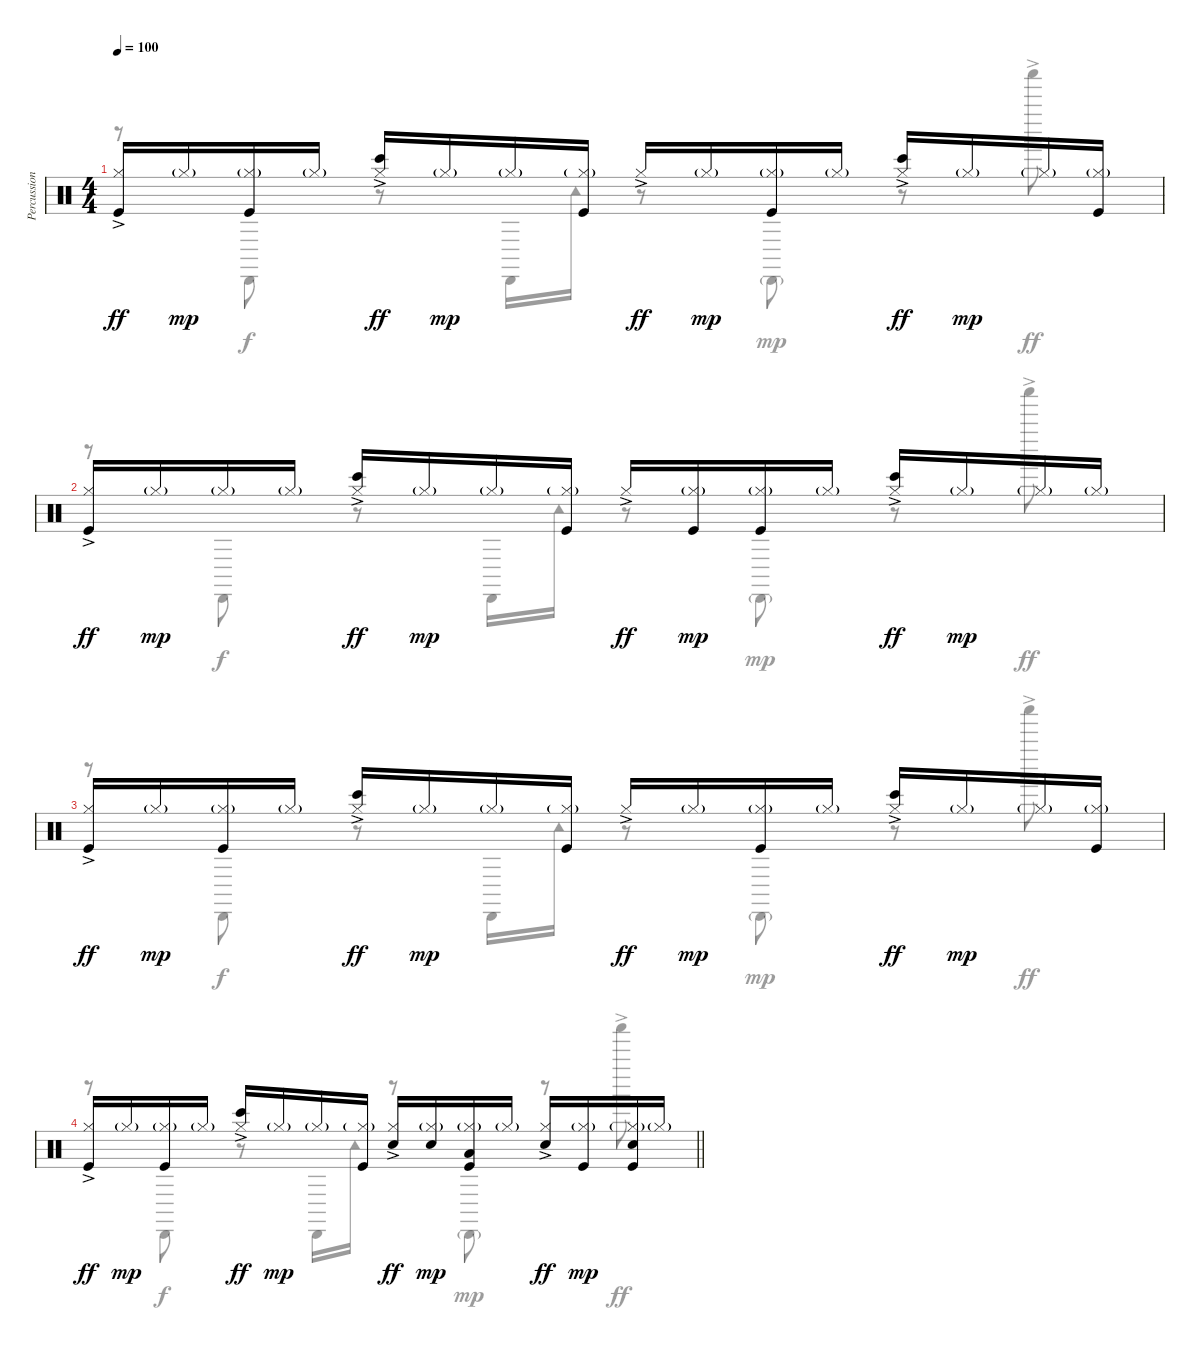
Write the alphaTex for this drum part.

\track ("Percussions" "Percussion") {instrument percussion}
\staff {score}
\articulation defaults
\voice
\ts (4 4)
\tempo 100
\clef neutral
\ks c
("Kick (hit)" "Hi-Hat (closed)"{ac}).16{dy ff} "Hi-Hat (closed)"{g}.16{dy mp} ("Kick (hit)" "Hi-Hat (closed)"{g}).16 "Hi-Hat (closed)"{g}.16 ("Bongo High (hit)" "Hi-Hat (closed)"{ac}).16{dy ff} "Hi-Hat (closed)"{g}.16{dy mp} "Hi-Hat (closed)"{g}.16 ("Kick (hit)" "Hi-Hat (closed)"{g}).16 "Hi-Hat (closed)"{ac}.16{dy ff} "Hi-Hat (closed)"{g}.16{dy mp} ("Kick (hit)" "Hi-Hat (closed)"{g}).16 "Hi-Hat (closed)"{g}.16 ("Bongo High (hit)" "Hi-Hat (closed)"{ac}).16{dy ff} "Hi-Hat (closed)"{g}.16{dy mp} "Hi-Hat (closed)"{g}.16 ("Kick (hit)" "Hi-Hat (closed)"{g}).16 |
("Kick (hit)" "Hi-Hat (closed)"{ac}).16{dy ff} "Hi-Hat (closed)"{g}.16{dy mp} "Hi-Hat (closed)"{g}.16 "Hi-Hat (closed)"{g}.16 ("Bongo High (hit)" "Hi-Hat (closed)"{ac}).16{dy ff} "Hi-Hat (closed)"{g}.16{dy mp} "Hi-Hat (closed)"{g}.16 ("Kick (hit)" "Hi-Hat (closed)"{g}).16 "Hi-Hat (closed)"{ac}.16{dy ff} ("Kick (hit)" "Hi-Hat (closed)"{g}).16{dy mp} ("Kick (hit)" "Hi-Hat (closed)"{g}).16 "Hi-Hat (closed)"{g}.16 ("Bongo High (hit)" "Hi-Hat (closed)"{ac}).16{dy ff} "Hi-Hat (closed)"{g}.16{dy mp} "Hi-Hat (closed)"{g}.16 "Hi-Hat (closed)"{g}.16 |
("Kick (hit)" "Hi-Hat (closed)"{ac}).16{dy ff} "Hi-Hat (closed)"{g}.16{dy mp} ("Kick (hit)" "Hi-Hat (closed)"{g}).16 "Hi-Hat (closed)"{g}.16 ("Bongo High (hit)" "Hi-Hat (closed)"{ac}).16{dy ff} "Hi-Hat (closed)"{g}.16{dy mp} "Hi-Hat (closed)"{g}.16 ("Kick (hit)" "Hi-Hat (closed)"{g}).16 "Hi-Hat (closed)"{ac}.16{dy ff} "Hi-Hat (closed)"{g}.16{dy mp} ("Kick (hit)" "Hi-Hat (closed)"{g}).16 "Hi-Hat (closed)"{g}.16 ("Bongo High (hit)" "Hi-Hat (closed)"{ac}).16{dy ff} "Hi-Hat (closed)"{g}.16{dy mp} "Hi-Hat (closed)"{g}.16 ("Kick (hit)" "Hi-Hat (closed)"{g}).16 |
\barLineRight lightlight
("Kick (hit)" "Hi-Hat (closed)"{ac}).16{dy ff} "Hi-Hat (closed)"{g}.16{dy mp} ("Kick (hit)" "Hi-Hat (closed)"{g}).16 "Hi-Hat (closed)"{g}.16 ("Bongo High (hit)" "Hi-Hat (closed)"{ac}).16{dy ff} "Hi-Hat (closed)"{g}.16{dy mp} "Hi-Hat (closed)"{g}.16 ("Kick (hit)" "Hi-Hat (closed)"{g}).16 ("Electric Snare (hit)" "Hi-Hat (closed)"{ac}).16{dy ff} ("Electric Snare (hit)" "Hi-Hat (closed)"{g}).16{dy mp} ("Kick (hit)" "Low Tom (hit)" "Hi-Hat (closed)"{g}).16 "Hi-Hat (closed)"{g}.16 ("Electric Snare (hit)" "Hi-Hat (closed)"{ac}).16{dy ff} ("Kick (hit)" "Hi-Hat (closed)"{g}).16{dy mp} ("Kick (hit)" "Electric Snare (hit)" "Hi-Hat (closed)"{g}).16 "Hi-Hat (closed)"{g}.16
\voice
\clef neutral
\ottava regular
\simile none
\ks c
r.8{dy ff} "Cabasa (hit)".8{dy f} r.8 "Cabasa (hit)".16 "Tambourine (hit)".16 r.8 "Cabasa (hit)"{g}.8{dy mp} r.8 "Shaker (hit)"{ac}.8{dy ff} |
r.8 "Cabasa (hit)".8{dy f} r.8 "Cabasa (hit)".16 "Tambourine (hit)".16 r.8 "Cabasa (hit)"{g}.8{dy mp} r.8 "Shaker (hit)"{ac}.8{dy ff} |
r.8 "Cabasa (hit)".8{dy f} r.8 "Cabasa (hit)".16 "Tambourine (hit)".16 r.8 "Cabasa (hit)"{g}.8{dy mp} r.8 "Shaker (hit)"{ac}.8{dy ff} |
\barLineRight lightlight
r.8 "Cabasa (hit)".8{dy f} r.8 "Cabasa (hit)".16 "Tambourine (hit)".16 r.8 "Cabasa (hit)"{g}.8{dy mp} r.8 "Shaker (hit)"{ac}.8{dy ff}
